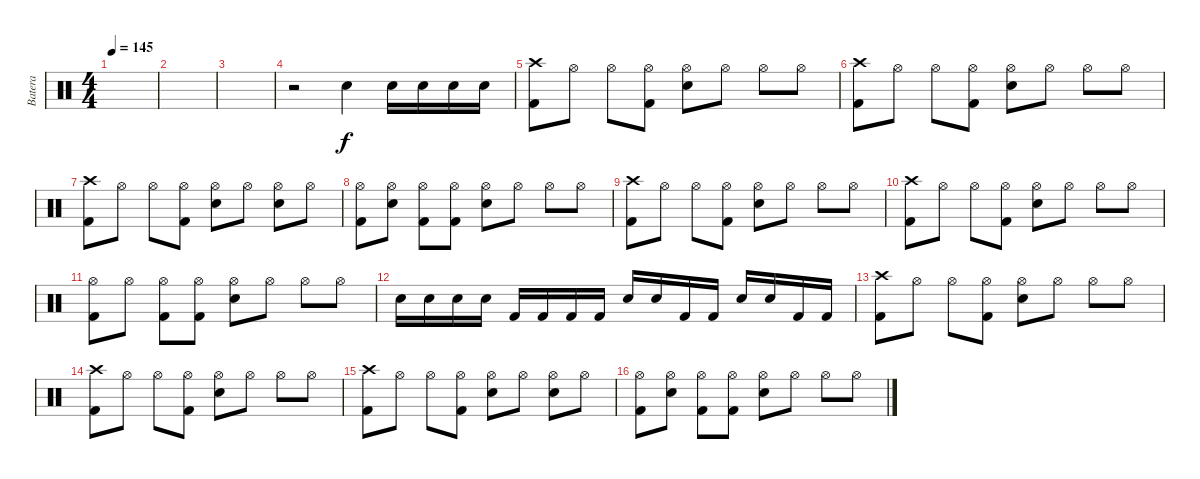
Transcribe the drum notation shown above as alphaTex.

\track ("Batera" "Batera") {instrument percussion}
\staff {score}
\articulation defaults
\ts (4 4)
\tempo 145
\clef neutral
\ks c
|
|
|
r.2 "Electric Snare (hit)".4 "Electric Snare (hit)".16 "Electric Snare (hit)".16 "Electric Snare (hit)".16 "Electric Snare (hit)".16 |
("Crash high (hit)" "Kick (hit) 2").8 "Hi-Hat (open)".8 "Hi-Hat (open)".8 ("Hi-Hat (open)" "Kick (hit) 2").8 ("Hi-Hat (open)" "Electric Snare (hit)").8 "Hi-Hat (open)".8 "Hi-Hat (open)".8 "Hi-Hat (open)".8 |
("Crash high (hit)" "Kick (hit) 2").8 "Hi-Hat (open)".8 "Hi-Hat (open)".8 ("Hi-Hat (open)" "Kick (hit) 2").8 ("Hi-Hat (open)" "Electric Snare (hit)").8 "Hi-Hat (open)".8 "Hi-Hat (open)".8 "Hi-Hat (open)".8 |
("Crash high (hit)" "Kick (hit) 2").8 "Hi-Hat (open)".8 "Hi-Hat (open)".8 ("Hi-Hat (open)" "Kick (hit) 2").8 ("Hi-Hat (open)" "Electric Snare (hit)").8 "Hi-Hat (open)".8 ("Hi-Hat (open)" "Electric Snare (hit)").8 "Hi-Hat (open)".8 |
("Hi-Hat (open)" "Kick (hit) 2").8 ("Hi-Hat (open)" "Electric Snare (hit)").8 ("Hi-Hat (open)" "Kick (hit) 2").8 ("Hi-Hat (open)" "Kick (hit) 2").8 ("Hi-Hat (open)" "Electric Snare (hit)").8 "Hi-Hat (open)".8 "Hi-Hat (open)".8 "Hi-Hat (open)".8 |
("Crash high (hit)" "Kick (hit) 2").8 "Hi-Hat (open)".8 "Hi-Hat (open)".8 ("Hi-Hat (open)" "Kick (hit) 2").8 ("Hi-Hat (open)" "Electric Snare (hit)").8 "Hi-Hat (open)".8 "Hi-Hat (open)".8 "Hi-Hat (open)".8 |
("Crash high (hit)" "Kick (hit) 2").8 "Hi-Hat (open)".8 "Hi-Hat (open)".8 ("Hi-Hat (open)" "Kick (hit) 2").8 ("Hi-Hat (open)" "Electric Snare (hit)").8 "Hi-Hat (open)".8 "Hi-Hat (open)".8 "Hi-Hat (open)".8 |
("Hi-Hat (open)" "Kick (hit) 2").8 "Hi-Hat (open)".8 ("Hi-Hat (open)" "Kick (hit) 2").8 ("Hi-Hat (open)" "Kick (hit) 2").8 ("Hi-Hat (open)" "Electric Snare (hit)").8 "Hi-Hat (open)".8 "Hi-Hat (open)".8 "Hi-Hat (open)".8 |
"Electric Snare (hit)".16 "Electric Snare (hit)".16 "Electric Snare (hit)".16 "Electric Snare (hit)".16 "Kick (hit) 2".16 "Kick (hit) 2".16 "Kick (hit) 2".16 "Kick (hit) 2".16 "Electric Snare (hit)".16 "Electric Snare (hit)".16 "Kick (hit) 2".16 "Kick (hit) 2".16 "Electric Snare (hit)".16 "Electric Snare (hit)".16 "Kick (hit) 2".16 "Kick (hit) 2".16 |
("Crash high (hit)" "Kick (hit) 2").8 "Hi-Hat (open)".8 "Hi-Hat (open)".8 ("Hi-Hat (open)" "Kick (hit) 2").8 ("Hi-Hat (open)" "Electric Snare (hit)").8 "Hi-Hat (open)".8 "Hi-Hat (open)".8 "Hi-Hat (open)".8 |
("Crash high (hit)" "Kick (hit) 2").8 "Hi-Hat (open)".8 "Hi-Hat (open)".8 ("Hi-Hat (open)" "Kick (hit) 2").8 ("Hi-Hat (open)" "Electric Snare (hit)").8 "Hi-Hat (open)".8 "Hi-Hat (open)".8 "Hi-Hat (open)".8 |
("Crash high (hit)" "Kick (hit) 2").8 "Hi-Hat (open)".8 "Hi-Hat (open)".8 ("Hi-Hat (open)" "Kick (hit) 2").8 ("Hi-Hat (open)" "Electric Snare (hit)").8 "Hi-Hat (open)".8 ("Hi-Hat (open)" "Electric Snare (hit)").8 "Hi-Hat (open)".8 |
("Hi-Hat (open)" "Kick (hit) 2").8 ("Hi-Hat (open)" "Electric Snare (hit)").8 ("Hi-Hat (open)" "Kick (hit) 2").8 ("Hi-Hat (open)" "Kick (hit) 2").8 ("Hi-Hat (open)" "Electric Snare (hit)").8 "Hi-Hat (open)".8 "Hi-Hat (open)".8 "Hi-Hat (open)".8
